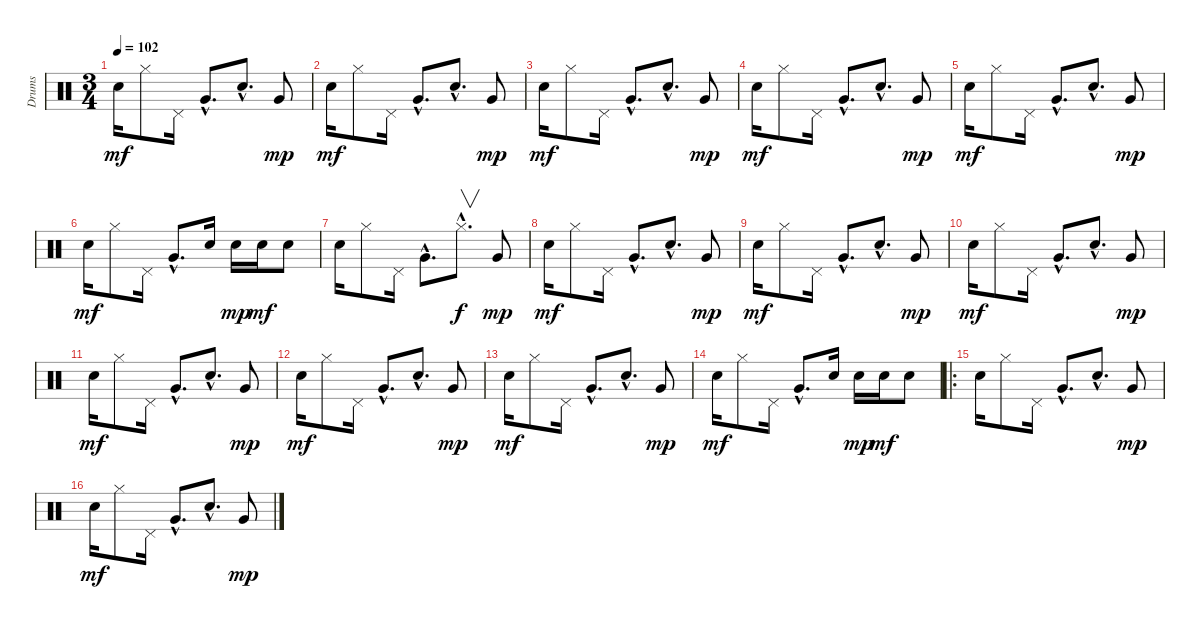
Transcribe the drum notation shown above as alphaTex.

\track ("Drums" "Drums") {instrument percussion}
\staff {score}
\articulation defaults
\ts (3 4)
\tempo 102
\clef neutral
\ks c "Electric Snare (hit)".16{dy mf} "Hi-Hat (closed)".8 "Pedal Hi-Hat (hit)".16 "Very Low Tom (hit)"{hac}.8{d} "Electric Snare (hit)"{hac}.8{d} "Very Low Tom (hit)".8{dy mp}
|
"Electric Snare (hit)".16{dy mf} "Hi-Hat (closed)".8 "Pedal Hi-Hat (hit)".16 "Very Low Tom (hit)"{hac}.8{d} "Electric Snare (hit)"{hac}.8{d} "Very Low Tom (hit)".8{dy mp} |
"Electric Snare (hit)".16{dy mf} "Hi-Hat (closed)".8 "Pedal Hi-Hat (hit)".16 "Very Low Tom (hit)"{hac}.8{d} "Electric Snare (hit)"{hac}.8{d} "Very Low Tom (hit)".8{dy mp} |
"Electric Snare (hit)".16{dy mf} "Hi-Hat (closed)".8 "Pedal Hi-Hat (hit)".16 "Very Low Tom (hit)"{hac}.8{d} "Electric Snare (hit)"{hac}.8{d} "Very Low Tom (hit)".8{dy mp} |
"Electric Snare (hit)".16{dy mf} "Hi-Hat (closed)".8 "Pedal Hi-Hat (hit)".16 "Very Low Tom (hit)"{hac}.8{d} "Electric Snare (hit)"{hac}.8{d} "Very Low Tom (hit)".8{dy mp} |
"Electric Snare (hit)".16{dy mf} "Hi-Hat (closed)".8 "Pedal Hi-Hat (hit)".16 "Very Low Tom (hit)"{hac}.8{d} "Electric Snare (hit)".16 "Electric Snare (hit)".16{dy mp} "Electric Snare (hit)".16{dy mf} "Electric Snare (hit)".8 |
"Electric Snare (hit)".16{volume 12} "Hi-Hat (closed)".8 "Pedal Hi-Hat (hit)".16 "Very Low Tom (hit)"{hac}.8{d} "Hi-Hat (closed)"{hac}.8{v d dy f} "Very Low Tom (hit)".8{dy mp} |
"Electric Snare (hit)".16{dy mf} "Hi-Hat (closed)".8 "Pedal Hi-Hat (hit)".16 "Very Low Tom (hit)"{hac}.8{d} "Electric Snare (hit)"{hac}.8{d} "Very Low Tom (hit)".8{dy mp} |
"Electric Snare (hit)".16{dy mf} "Hi-Hat (closed)".8 "Pedal Hi-Hat (hit)".16 "Very Low Tom (hit)"{hac}.8{d} "Electric Snare (hit)"{hac}.8{d} "Very Low Tom (hit)".8{dy mp} |
"Electric Snare (hit)".16{dy mf} "Hi-Hat (closed)".8 "Pedal Hi-Hat (hit)".16 "Very Low Tom (hit)"{hac}.8{d} "Electric Snare (hit)"{hac}.8{d} "Very Low Tom (hit)".8{dy mp} |
"Electric Snare (hit)".16{dy mf} "Hi-Hat (closed)".8 "Pedal Hi-Hat (hit)".16 "Very Low Tom (hit)"{hac}.8{d} "Electric Snare (hit)"{hac}.8{d} "Very Low Tom (hit)".8{dy mp} |
"Electric Snare (hit)".16{dy mf} "Hi-Hat (closed)".8 "Pedal Hi-Hat (hit)".16 "Very Low Tom (hit)"{hac}.8{d} "Electric Snare (hit)"{hac}.8{d} "Very Low Tom (hit)".8{dy mp} |
"Electric Snare (hit)".16{dy mf} "Hi-Hat (closed)".8 "Pedal Hi-Hat (hit)".16 "Very Low Tom (hit)"{hac}.8{d} "Electric Snare (hit)"{hac}.8{d} "Very Low Tom (hit)".8{dy mp} |
"Electric Snare (hit)".16{dy mf} "Hi-Hat (closed)".8 "Pedal Hi-Hat (hit)".16 "Very Low Tom (hit)"{hac}.8{d} "Electric Snare (hit)".16 "Electric Snare (hit)".16{dy mp} "Electric Snare (hit)".16{dy mf} "Electric Snare (hit)".8 |
\ro "Electric Snare (hit)".16{volume 12} "Hi-Hat (closed)".8 "Pedal Hi-Hat (hit)".16 "Very Low Tom (hit)"{hac}.8{d} "Electric Snare (hit)"{hac}.8{d} "Very Low Tom (hit)".8{dy mp}
|
"Electric Snare (hit)".16{dy mf} "Hi-Hat (closed)".8 "Pedal Hi-Hat (hit)".16 "Very Low Tom (hit)"{hac}.8{d} "Electric Snare (hit)"{hac}.8{d} "Very Low Tom (hit)".8{dy mp}
